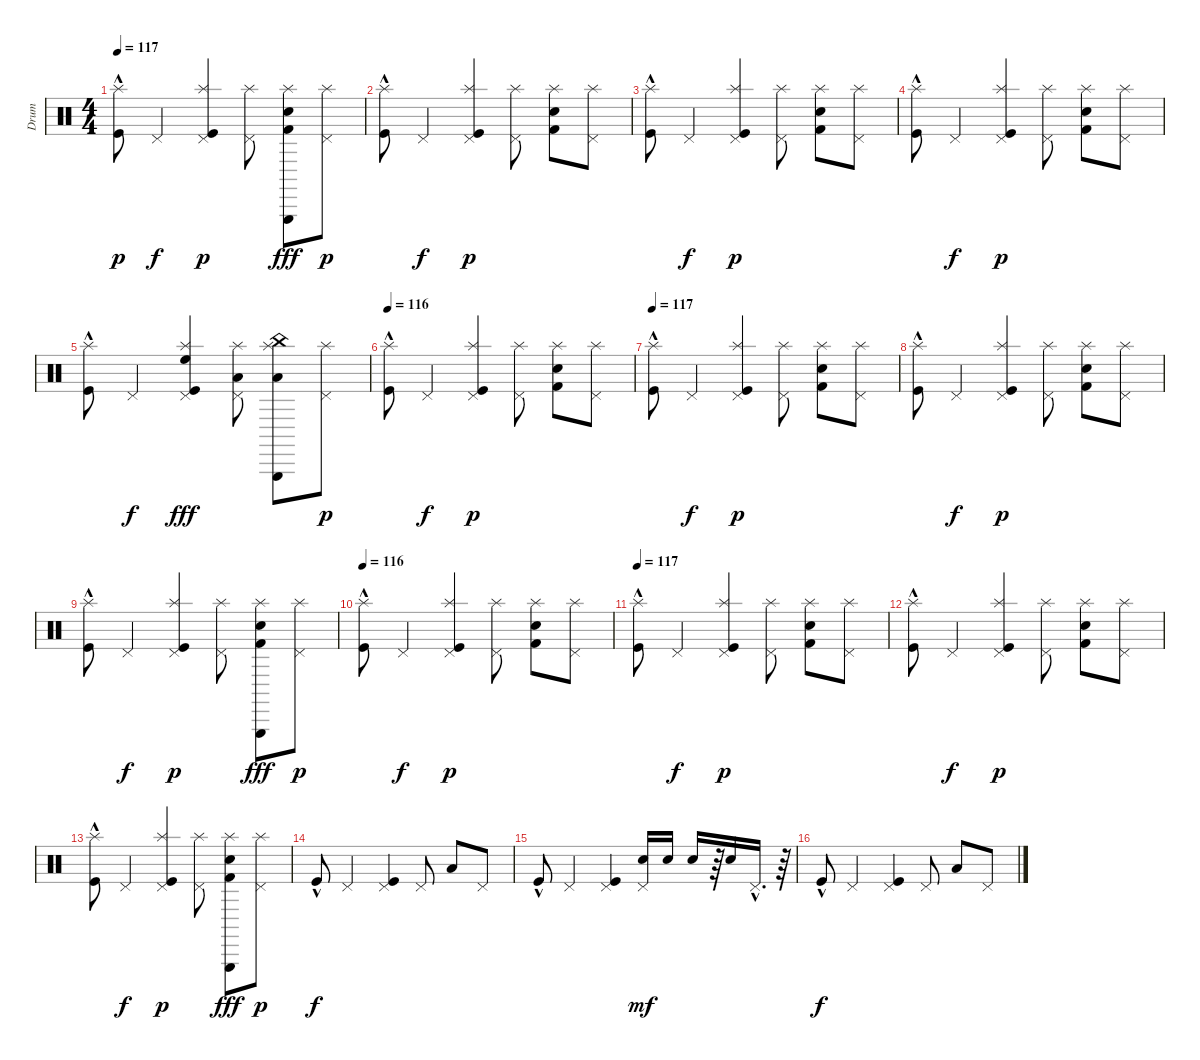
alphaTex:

\track ("Drum" "Drum") {instrument percussion}
\staff {score}
\articulation defaults
\ts (4 4)
\tempo 117
\clef neutral
\ks c
("Kick (hit)"{hac} "Splash (hit)").8{dy p} "Pedal Hi-Hat (hit)".4{dy f} ("Pedal Hi-Hat (hit)" "Splash (hit)" "Kick (hit)").4{dy p} ("Pedal Hi-Hat (hit)" "Splash (hit)").8 ("Kick (hit) 2" "Splash (hit)" "Triangle (hit)" "Snare (hit) 2").8{dy fff} ("Pedal Hi-Hat (hit)" "Splash (hit)").8{dy p} |
("Splash (hit)" "Kick (hit)"{hac}).8 "Pedal Hi-Hat (hit)".4{dy f} ("Pedal Hi-Hat (hit)" "Splash (hit)" "Kick (hit)").4{dy p} ("Pedal Hi-Hat (hit)" "Splash (hit)").8 ("Kick (hit) 2" "Splash (hit)" "Snare (hit) 2").8 ("Pedal Hi-Hat (hit)" "Splash (hit)").8 |
("Splash (hit)" "Kick (hit)"{hac}).8 "Pedal Hi-Hat (hit)".4{dy f} ("Splash (hit)" "Pedal Hi-Hat (hit)" "Kick (hit)").4{dy p} ("Splash (hit)" "Pedal Hi-Hat (hit)").8 ("Kick (hit) 2" "Splash (hit)" "Snare (hit) 2").8 ("Splash (hit)" "Pedal Hi-Hat (hit)").8 |
("Splash (hit)" "Kick (hit)"{hac}).8 "Pedal Hi-Hat (hit)".4{dy f} ("Pedal Hi-Hat (hit)" "Splash (hit)" "Kick (hit)").4{dy p} ("Pedal Hi-Hat (hit)" "Splash (hit)").8 ("Splash (hit)" "Kick (hit) 2" "Snare (hit) 2").8 ("Pedal Hi-Hat (hit)" "Splash (hit)").8 |
("Splash (hit)" "Kick (hit)"{hac}).8 "Pedal Hi-Hat (hit)".4{dy f} ("Splash (hit)" "Pedal Hi-Hat (hit)" "Kick (hit)" "High Floor Tom (hit)").4{dy fff} ("Splash (hit)" "Pedal Hi-Hat (hit)" "Low Tom (hit)").8 ("China (hit)" "Triangle (hit)" "Splash (hit)" "Low Floor Tom (hit)").8 ("Splash (hit)" "Pedal Hi-Hat (hit)").8{dy p} |
\tempo 116
("Splash (hit)" "Kick (hit)"{hac}).8 "Pedal Hi-Hat (hit)".4{dy f} ("Pedal Hi-Hat (hit)" "Splash (hit)" "Kick (hit)").4{dy p} ("Splash (hit)" "Pedal Hi-Hat (hit)").8 ("Kick (hit) 2" "Splash (hit)" "Snare (hit) 2").8 ("Pedal Hi-Hat (hit)" "Splash (hit)").8 |
\tempo 117
("Splash (hit)" "Kick (hit)"{hac}).8 "Pedal Hi-Hat (hit)".4{dy f} ("Pedal Hi-Hat (hit)" "Splash (hit)" "Kick (hit)").4{dy p} ("Splash (hit)" "Pedal Hi-Hat (hit)").8 ("Kick (hit) 2" "Splash (hit)" "Snare (hit) 2").8 ("Pedal Hi-Hat (hit)" "Splash (hit)").8 |
("Splash (hit)" "Kick (hit)"{hac}).8 "Pedal Hi-Hat (hit)".4{dy f} ("Pedal Hi-Hat (hit)" "Splash (hit)" "Kick (hit)").4{dy p} ("Splash (hit)" "Pedal Hi-Hat (hit)").8 ("Kick (hit) 2" "Splash (hit)" "Snare (hit) 2").8 ("Pedal Hi-Hat (hit)" "Splash (hit)").8 |
("Splash (hit)" "Kick (hit)"{hac}).8 "Pedal Hi-Hat (hit)".4{dy f} ("Pedal Hi-Hat (hit)" "Splash (hit)" "Kick (hit)").4{dy p} ("Pedal Hi-Hat (hit)" "Splash (hit)").8 ("Splash (hit)" "Kick (hit) 2" "Triangle (hit)" "Snare (hit) 2").8{dy fff} ("Pedal Hi-Hat (hit)" "Splash (hit)").8{dy p} |
\tempo 116
("Splash (hit)" "Kick (hit)"{hac}).8 "Pedal Hi-Hat (hit)".4{dy f} ("Pedal Hi-Hat (hit)" "Splash (hit)" "Kick (hit)").4{dy p} ("Pedal Hi-Hat (hit)" "Splash (hit)").8 ("Splash (hit)" "Kick (hit) 2" "Snare (hit) 2").8 ("Pedal Hi-Hat (hit)" "Splash (hit)").8 |
\tempo 117
("Splash (hit)" "Kick (hit)"{hac}).8 "Pedal Hi-Hat (hit)".4{dy f} ("Pedal Hi-Hat (hit)" "Splash (hit)" "Kick (hit)").4{dy p} ("Pedal Hi-Hat (hit)" "Splash (hit)").8 ("Splash (hit)" "Kick (hit) 2" "Snare (hit) 2").8 ("Pedal Hi-Hat (hit)" "Splash (hit)").8 |
("Splash (hit)" "Kick (hit)"{hac}).8 "Pedal Hi-Hat (hit)".4{dy f} ("Pedal Hi-Hat (hit)" "Splash (hit)" "Kick (hit)").4{dy p} ("Pedal Hi-Hat (hit)" "Splash (hit)").8 ("Splash (hit)" "Kick (hit) 2" "Snare (hit) 2").8 ("Pedal Hi-Hat (hit)" "Splash (hit)").8 |
("Splash (hit)" "Kick (hit)"{hac}).8 "Pedal Hi-Hat (hit)".4{dy f} ("Pedal Hi-Hat (hit)" "Splash (hit)" "Kick (hit)").4{dy p} ("Pedal Hi-Hat (hit)" "Splash (hit)").8 ("Splash (hit)" "Kick (hit) 2" "Triangle (hit)" "Snare (hit) 2").8{dy fff} ("Pedal Hi-Hat (hit)" "Splash (hit)").8{dy p} |
"Kick (hit)"{hac}.8{dy f} "Pedal Hi-Hat (hit)".4 ("Pedal Hi-Hat (hit)" "Kick (hit)").4 "Pedal Hi-Hat (hit)".8 "Low Floor Tom (hit)".8 "Pedal Hi-Hat (hit)".8 |
"Kick (hit)"{hac}.8 "Pedal Hi-Hat (hit)".4 ("Pedal Hi-Hat (hit)" "Kick (hit)").4 ("Pedal Hi-Hat (hit)" "Electric Snare (hit)").16{dy mf} "Electric Snare (hit)".16 "Electric Snare (hit)".16 r.64 "Electric Snare (hit)".16 "Pedal Hi-Hat (hit)"{hac}.16{d} r.64 |
"Kick (hit)"{hac}.8{dy f} "Pedal Hi-Hat (hit)".4 ("Pedal Hi-Hat (hit)" "Kick (hit)").4 "Pedal Hi-Hat (hit)".8 "Low Floor Tom (hit)".8 "Pedal Hi-Hat (hit)".8
